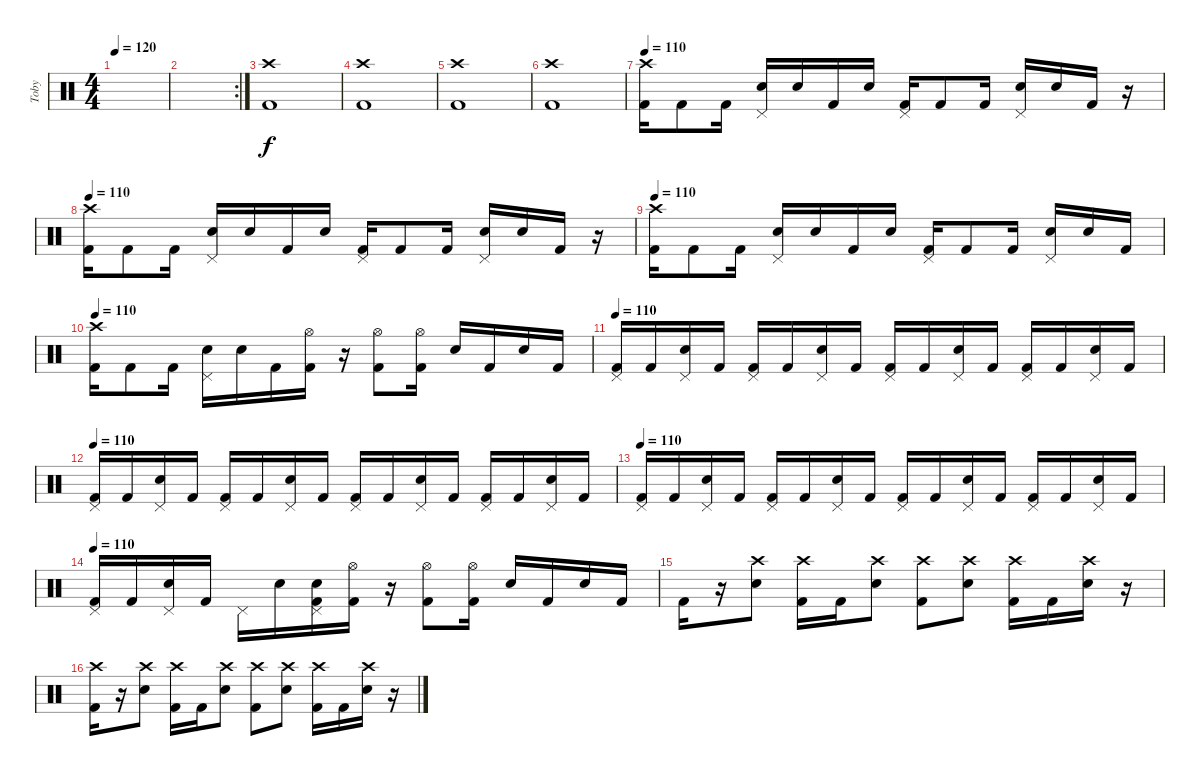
\track ("Toby" "Toby") {instrument percussion}
\staff {score}
\articulation defaults
\ts (4 4)
\tempo 120
\clef neutral
\ks c
|
\rc 2
|
("Crash high (hit)" "Kick (hit) 2").1 |
("Crash high (hit)" "Kick (hit) 2").1 |
("Crash high (hit)" "Kick (hit) 2").1 |
("Crash high (hit)" "Kick (hit) 2").1 |
\tempo 110
("Crash high (hit)" "Kick (hit) 2").16 "Kick (hit) 2".8 "Kick (hit) 2".16 ("Pedal Hi-Hat (hit)" "Electric Snare (hit)").16 "Snare (hit)".16 "Kick (hit) 2".16 "Snare (hit)".16 ("Pedal Hi-Hat (hit)" "Kick (hit) 2").16 "Kick (hit) 2".8 "Kick (hit) 2".16 ("Pedal Hi-Hat (hit)" "Electric Snare (hit)").16 "Snare (hit)".16 "Kick (hit) 2".16 r.16 |
\tempo 110
("Crash high (hit)" "Kick (hit) 2").16 "Kick (hit) 2".8 "Kick (hit) 2".16 ("Pedal Hi-Hat (hit)" "Electric Snare (hit)").16 "Snare (hit)".16 "Kick (hit) 2".16 "Snare (hit)".16 ("Pedal Hi-Hat (hit)" "Kick (hit) 2").16 "Kick (hit) 2".8 "Kick (hit) 2".16 ("Pedal Hi-Hat (hit)" "Electric Snare (hit)").16 "Snare (hit)".16 "Kick (hit) 2".16 r.16 |
\tempo 110
("Crash high (hit)" "Kick (hit) 2").16 "Kick (hit) 2".8 "Kick (hit) 2".16 ("Pedal Hi-Hat (hit)" "Electric Snare (hit)").16 "Snare (hit)".16 "Kick (hit) 2".16 "Snare (hit)".16 ("Pedal Hi-Hat (hit)" "Kick (hit) 2").16 "Kick (hit) 2".8 "Kick (hit) 2".16 ("Pedal Hi-Hat (hit)" "Electric Snare (hit)").16 "Snare (hit)".16 "Kick (hit) 2".16 |
\tempo 110
("Crash high (hit)" "Kick (hit) 2").16 "Kick (hit) 2".8 "Kick (hit) 2".16 ("Pedal Hi-Hat (hit)" "Electric Snare (hit)").16 "Snare (hit)".16 "Kick (hit) 2".16 ("Hi-Hat (open)" "Kick (hit) 2").16 r.16 ("Hi-Hat (open)" "Kick (hit) 2").8 ("Hi-Hat (open)" "Kick (hit) 2").16 "Snare (hit)".16 "Kick (hit) 2".16 "Electric Snare (hit)".16 "Kick (hit) 2".16 |
\tempo 110
("Pedal Hi-Hat (hit)" "Kick (hit) 2").16 "Kick (hit) 2".16 ("Pedal Hi-Hat (hit)" "Electric Snare (hit)").16 "Kick (hit) 2".16 ("Pedal Hi-Hat (hit)" "Kick (hit) 2").16 "Kick (hit) 2".16 ("Pedal Hi-Hat (hit)" "Electric Snare (hit)").16 "Kick (hit) 2".16 ("Pedal Hi-Hat (hit)" "Kick (hit) 2").16 "Kick (hit) 2".16 ("Pedal Hi-Hat (hit)" "Electric Snare (hit)").16 "Kick (hit) 2".16 ("Pedal Hi-Hat (hit)" "Kick (hit) 2").16 "Kick (hit) 2".16 ("Pedal Hi-Hat (hit)" "Electric Snare (hit)").16 "Kick (hit) 2".16 |
\tempo 110
("Pedal Hi-Hat (hit)" "Kick (hit) 2").16 "Kick (hit) 2".16 ("Pedal Hi-Hat (hit)" "Electric Snare (hit)").16 "Kick (hit) 2".16 ("Pedal Hi-Hat (hit)" "Kick (hit) 2").16 "Kick (hit) 2".16 ("Pedal Hi-Hat (hit)" "Electric Snare (hit)").16 "Kick (hit) 2".16 ("Pedal Hi-Hat (hit)" "Kick (hit) 2").16 "Kick (hit) 2".16 ("Pedal Hi-Hat (hit)" "Electric Snare (hit)").16 "Kick (hit) 2".16 ("Pedal Hi-Hat (hit)" "Kick (hit) 2").16 "Kick (hit) 2".16 ("Pedal Hi-Hat (hit)" "Electric Snare (hit)").16 "Kick (hit) 2".16 |
\tempo 110
("Pedal Hi-Hat (hit)" "Kick (hit) 2").16 "Kick (hit) 2".16 ("Pedal Hi-Hat (hit)" "Electric Snare (hit)").16 "Kick (hit) 2".16 ("Pedal Hi-Hat (hit)" "Kick (hit) 2").16 "Kick (hit) 2".16 ("Pedal Hi-Hat (hit)" "Electric Snare (hit)").16 "Kick (hit) 2".16 ("Pedal Hi-Hat (hit)" "Kick (hit) 2").16 "Kick (hit) 2".16 ("Pedal Hi-Hat (hit)" "Electric Snare (hit)").16 "Kick (hit) 2".16 ("Pedal Hi-Hat (hit)" "Kick (hit) 2").16 "Kick (hit) 2".16 ("Pedal Hi-Hat (hit)" "Electric Snare (hit)").16 "Kick (hit) 2".16 |
\tempo 110
("Pedal Hi-Hat (hit)" "Kick (hit) 2").16 "Kick (hit) 2".16 ("Pedal Hi-Hat (hit)" "Electric Snare (hit)").16 "Kick (hit) 2".16 "Pedal Hi-Hat (hit)".16 "Snare (hit)".16 ("Pedal Hi-Hat (hit)" "Electric Snare (hit)" "Kick (hit) 2").16 ("Hi-Hat (open)" "Kick (hit) 2").16 r.16 ("Hi-Hat (open)" "Kick (hit) 2").8 ("Hi-Hat (open)" "Kick (hit) 2").16 "Snare (hit)".16 "Kick (hit) 2".16 "Electric Snare (hit)".16 "Kick (hit) 2".16 |
"Kick (hit) 2".16 r.16 ("Crash high (hit)" "Electric Snare (hit)").8 ("Crash high (hit)" "Kick (hit) 2").16 "Kick (hit) 2".16 ("Crash high (hit)" "Electric Snare (hit)").8 ("Crash high (hit)" "Kick (hit) 2").8 ("Crash high (hit)" "Electric Snare (hit)").8 ("Crash high (hit)" "Kick (hit) 2").16 "Kick (hit) 2".16 ("Crash high (hit)" "Electric Snare (hit)").16 r.16 |
("Crash high (hit)" "Kick (hit) 2").16 r.16 ("Crash high (hit)" "Electric Snare (hit)").8 ("Crash high (hit)" "Kick (hit) 2").16 "Kick (hit) 2".16 ("Crash high (hit)" "Electric Snare (hit)").8 ("Crash high (hit)" "Kick (hit) 2").8 ("Crash high (hit)" "Electric Snare (hit)").8 ("Crash high (hit)" "Kick (hit) 2").16 "Kick (hit) 2".16 ("Crash high (hit)" "Electric Snare (hit)").16 r.16
